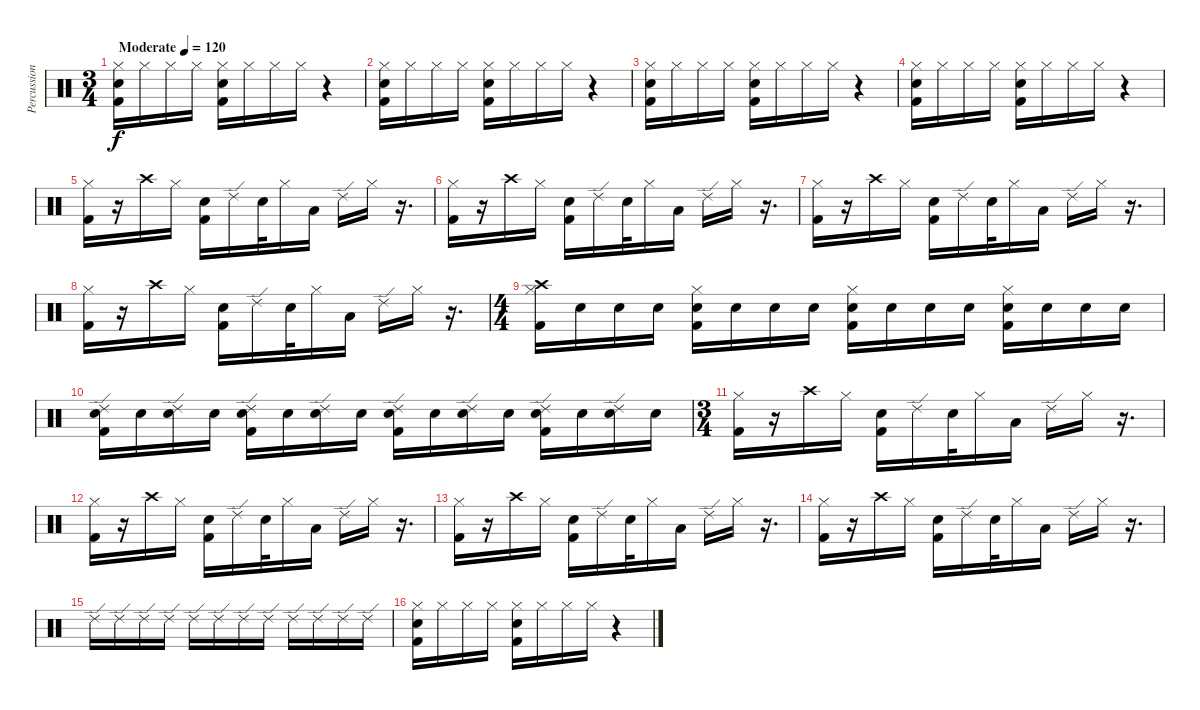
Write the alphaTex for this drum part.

\track ("Percussions" "Percussion") {instrument percussion}
\staff {score}
\articulation defaults
\ts (3 4)
\tempo (120 "Moderate")
\clef neutral
\ks c
("Hi-Hat (closed)" "Electric Snare (hit)" "Kick (hit) 2").16{dy f} "Hi-Hat (closed)".16 "Hi-Hat (closed)".16 "Hi-Hat (closed)".16 ("Hi-Hat (closed)" "Electric Snare (hit)" "Kick (hit) 2").16 "Hi-Hat (closed)".16 "Hi-Hat (closed)".16 "Hi-Hat (closed)".16 r.4 |
("Hi-Hat (closed)" "Electric Snare (hit)" "Kick (hit) 2").16 "Hi-Hat (closed)".16 "Hi-Hat (closed)".16 "Hi-Hat (closed)".16 ("Hi-Hat (closed)" "Electric Snare (hit)" "Kick (hit) 2").16 "Hi-Hat (closed)".16 "Hi-Hat (closed)".16 "Hi-Hat (closed)".16 r.4 |
("Hi-Hat (closed)" "Electric Snare (hit)" "Kick (hit) 2").16 "Hi-Hat (closed)".16 "Hi-Hat (closed)".16 "Hi-Hat (closed)".16 ("Hi-Hat (closed)" "Electric Snare (hit)" "Kick (hit) 2").16 "Hi-Hat (closed)".16 "Hi-Hat (closed)".16 "Hi-Hat (closed)".16 r.4 |
("Hi-Hat (closed)" "Electric Snare (hit)" "Kick (hit) 2").16 "Hi-Hat (closed)".16 "Hi-Hat (closed)".16 "Hi-Hat (closed)".16 ("Hi-Hat (closed)" "Electric Snare (hit)" "Kick (hit) 2").16 "Hi-Hat (closed)".16 "Hi-Hat (closed)".16 "Hi-Hat (closed)".16 r.4 |
("Hi-Hat (closed)" "Kick (hit) 2").16 r.16 "Crash high (hit)".16 "Hi-Hat (closed)".16 ("Electric Snare (hit)" "Kick (hit) 2").16 "Ride (edge) 2".16 "Electric Snare (hit)".32 "Hi-Hat (closed)".16 "Low Tom (hit)".16 "Ride (edge) 2".16 "Hi-Hat (closed)".16 r.16{d} |
("Hi-Hat (closed)" "Kick (hit) 2").16 r.16 "Crash high (hit)".16 "Hi-Hat (closed)".16 ("Electric Snare (hit)" "Kick (hit) 2").16 "Ride (edge) 2".16 "Electric Snare (hit)".32 "Hi-Hat (closed)".16 "Low Tom (hit)".16 "Ride (edge) 2".16 "Hi-Hat (closed)".16 r.16{d} |
("Hi-Hat (closed)" "Kick (hit) 2").16 r.16 "Crash high (hit)".16 "Hi-Hat (closed)".16 ("Electric Snare (hit)" "Kick (hit) 2").16 "Ride (edge) 2".16 "Electric Snare (hit)".32 "Hi-Hat (closed)".16 "Low Tom (hit)".16 "Ride (edge) 2".16 "Hi-Hat (closed)".16 r.16{d} |
("Hi-Hat (closed)" "Kick (hit) 2").16 r.16 "Crash high (hit)".16 "Hi-Hat (closed)".16 ("Electric Snare (hit)" "Kick (hit) 2").16 "Ride (edge) 2".16 "Electric Snare (hit)".32 "Hi-Hat (closed)".16 "Low Tom (hit)".16 "Ride (edge) 2".16 "Hi-Hat (closed)".16 r.16{d} |
\ts (4 4)
("Crash high (hit)" "Hi-Hat (closed)" "Kick (hit) 2").16 "Electric Snare (hit)".16 "Electric Snare (hit)".16 "Electric Snare (hit)".16 ("Hi-Hat (closed)" "Electric Snare (hit)" "Kick (hit) 2").16 "Electric Snare (hit)".16 "Electric Snare (hit)".16 "Electric Snare (hit)".16 ("Hi-Hat (closed)" "Electric Snare (hit)" "Kick (hit) 2").16 "Electric Snare (hit)".16 "Electric Snare (hit)".16 "Electric Snare (hit)".16 ("Hi-Hat (closed)" "Electric Snare (hit)" "Kick (hit) 2").16 "Electric Snare (hit)".16 "Electric Snare (hit)".16 "Electric Snare (hit)".16 |
("Ride (edge) 2" "Electric Snare (hit)" "Kick (hit) 2").16 "Electric Snare (hit)".16 ("Ride (edge) 2" "Electric Snare (hit)").16 "Electric Snare (hit)".16 ("Ride (edge) 2" "Electric Snare (hit)" "Kick (hit) 2").16 "Electric Snare (hit)".16 ("Ride (edge) 2" "Electric Snare (hit)").16 "Electric Snare (hit)".16 ("Ride (edge) 2" "Electric Snare (hit)" "Kick (hit) 2").16 "Electric Snare (hit)".16 ("Ride (edge) 2" "Electric Snare (hit)").16 "Electric Snare (hit)".16 ("Ride (edge) 2" "Electric Snare (hit)" "Kick (hit) 2").16 "Electric Snare (hit)".16 ("Ride (edge) 2" "Electric Snare (hit)").16 "Electric Snare (hit)".16 |
\ts (3 4)
("Hi-Hat (closed)" "Kick (hit) 2").16 r.16 "Crash high (hit)".16 "Hi-Hat (closed)".16 ("Electric Snare (hit)" "Kick (hit) 2").16 "Ride (edge) 2".16 "Electric Snare (hit)".32 "Hi-Hat (closed)".16 "Low Tom (hit)".16 "Ride (edge) 2".16 "Hi-Hat (closed)".16 r.16{d} |
("Hi-Hat (closed)" "Kick (hit) 2").16 r.16 "Crash high (hit)".16 "Hi-Hat (closed)".16 ("Electric Snare (hit)" "Kick (hit) 2").16 "Ride (edge) 2".16 "Electric Snare (hit)".32 "Hi-Hat (closed)".16 "Low Tom (hit)".16 "Ride (edge) 2".16 "Hi-Hat (closed)".16 r.16{d} |
("Hi-Hat (closed)" "Kick (hit) 2").16 r.16 "Crash high (hit)".16 "Hi-Hat (closed)".16 ("Electric Snare (hit)" "Kick (hit) 2").16 "Ride (edge) 2".16 "Electric Snare (hit)".32 "Hi-Hat (closed)".16 "Low Tom (hit)".16 "Ride (edge) 2".16 "Hi-Hat (closed)".16 r.16{d} |
("Hi-Hat (closed)" "Kick (hit) 2").16 r.16 "Crash high (hit)".16 "Hi-Hat (closed)".16 ("Electric Snare (hit)" "Kick (hit) 2").16 "Ride (edge) 2".16 "Electric Snare (hit)".32 "Hi-Hat (closed)".16 "Low Tom (hit)".16 "Ride (edge) 2".16 "Hi-Hat (closed)".16 r.16{d} |
"Ride (edge) 2".16 "Ride (edge) 2".16 "Ride (edge) 2".16 "Ride (edge) 2".16 "Ride (edge) 2".16 "Ride (edge) 2".16 "Ride (edge) 2".16 "Ride (edge) 2".16 "Ride (edge) 2".16 "Ride (edge) 2".16 "Ride (edge) 2".16 "Ride (edge) 2".16 |
("Hi-Hat (closed)" "Electric Snare (hit)" "Kick (hit) 2").16 "Hi-Hat (closed)".16 "Hi-Hat (closed)".16 "Hi-Hat (closed)".16 ("Hi-Hat (closed)" "Electric Snare (hit)" "Kick (hit) 2").16 "Hi-Hat (closed)".16 "Hi-Hat (closed)".16 "Hi-Hat (closed)".16 r.4
